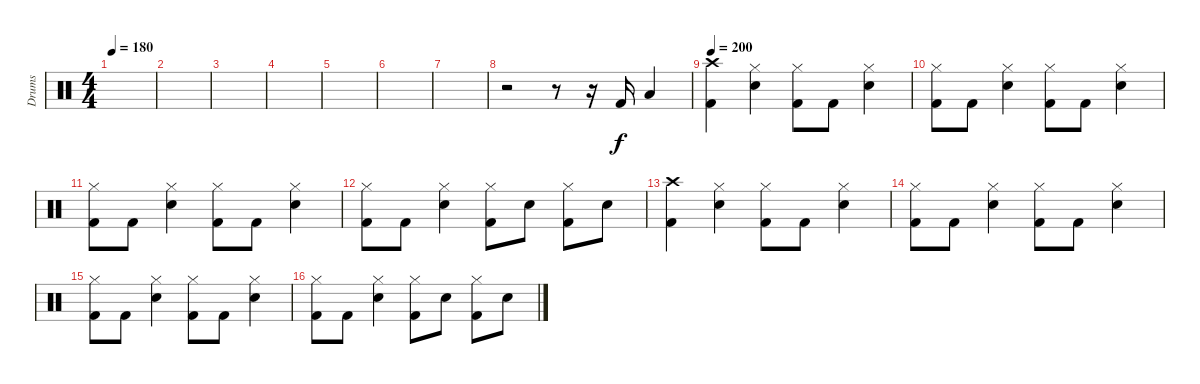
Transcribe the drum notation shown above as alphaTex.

\track ("Drums" "Drums") {instrument percussion}
\staff {score}
\articulation defaults
\ts (4 4)
\tempo 180
\clef neutral
\ks c
|
|
|
|
|
|
|
r.2 r.8 r.16 "Kick (hit) 2".16 "Low Tom (hit)".4 |
\tempo 200
("Crash high (hit)" "Kick (hit) 2").4 ("Hi-Hat (closed)" "Electric Snare (hit)").4 ("Hi-Hat (closed)" "Kick (hit) 2").8 "Kick (hit) 2".8 ("Hi-Hat (closed)" "Electric Snare (hit)").4 |
("Hi-Hat (closed)" "Kick (hit) 2").8 "Kick (hit) 2".8 ("Hi-Hat (closed)" "Electric Snare (hit)").4 ("Hi-Hat (closed)" "Kick (hit) 2").8 "Kick (hit) 2".8 ("Hi-Hat (closed)" "Electric Snare (hit)").4 |
("Hi-Hat (closed)" "Kick (hit) 2").8 "Kick (hit) 2".8 ("Hi-Hat (closed)" "Electric Snare (hit)").4 ("Hi-Hat (closed)" "Kick (hit) 2").8 "Kick (hit) 2".8 ("Hi-Hat (closed)" "Electric Snare (hit)").4 |
("Hi-Hat (closed)" "Kick (hit) 2").8 "Kick (hit) 2".8 ("Hi-Hat (closed)" "Electric Snare (hit)").4 ("Hi-Hat (closed)" "Kick (hit) 2").8 "Electric Snare (hit)".8 ("Hi-Hat (closed)" "Kick (hit) 2").8 "Electric Snare (hit)".8 |
("Crash high (hit)" "Kick (hit) 2").4 ("Hi-Hat (closed)" "Electric Snare (hit)").4 ("Hi-Hat (closed)" "Kick (hit) 2").8 "Kick (hit) 2".8 ("Hi-Hat (closed)" "Electric Snare (hit)").4 |
("Hi-Hat (closed)" "Kick (hit) 2").8 "Kick (hit) 2".8 ("Hi-Hat (closed)" "Electric Snare (hit)").4 ("Hi-Hat (closed)" "Kick (hit) 2").8 "Kick (hit) 2".8 ("Hi-Hat (closed)" "Electric Snare (hit)").4 |
("Hi-Hat (closed)" "Kick (hit) 2").8 "Kick (hit) 2".8 ("Hi-Hat (closed)" "Electric Snare (hit)").4 ("Hi-Hat (closed)" "Kick (hit) 2").8 "Kick (hit) 2".8 ("Hi-Hat (closed)" "Electric Snare (hit)").4 |
("Hi-Hat (closed)" "Kick (hit) 2").8 "Kick (hit) 2".8 ("Hi-Hat (closed)" "Electric Snare (hit)").4 ("Hi-Hat (closed)" "Kick (hit) 2").8 "Electric Snare (hit)".8 ("Hi-Hat (closed)" "Kick (hit) 2").8 "Electric Snare (hit)".8
